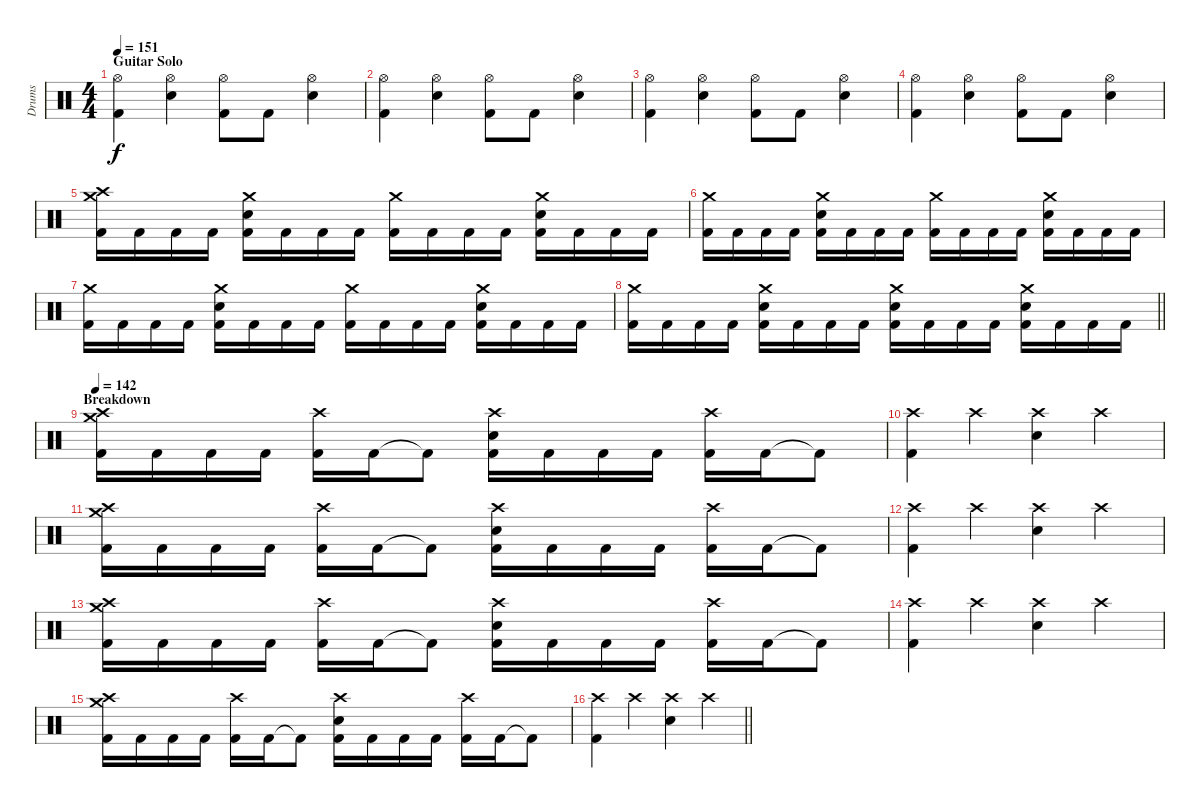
\track ("Drums" "Drums") {instrument percussion}
\staff {score}
\articulation defaults
\ts (4 4)
\section ("" "Guitar Solo")
\tempo 151
\clef neutral
\ks c
("Hi-Hat (open)" "Kick (hit) 2").4{dy f} ("Hi-Hat (open)" "Electric Snare (hit)").4 ("Hi-Hat (open)" "Kick (hit) 2").8 "Kick (hit) 2".8 ("Hi-Hat (open)" "Electric Snare (hit)").4 |
("Hi-Hat (open)" "Kick (hit) 2").4 ("Hi-Hat (open)" "Electric Snare (hit)").4 ("Hi-Hat (open)" "Kick (hit) 2").8 "Kick (hit) 2".8 ("Hi-Hat (open)" "Electric Snare (hit)").4 |
("Hi-Hat (open)" "Kick (hit) 2").4 ("Hi-Hat (open)" "Electric Snare (hit)").4 ("Hi-Hat (open)" "Kick (hit) 2").8 "Kick (hit) 2".8 ("Hi-Hat (open)" "Electric Snare (hit)").4 |
("Hi-Hat (open)" "Kick (hit) 2").4 ("Hi-Hat (open)" "Electric Snare (hit)").4 ("Hi-Hat (open)" "Kick (hit) 2").8 "Kick (hit) 2".8 ("Hi-Hat (open)" "Electric Snare (hit)").4 |
("Crash medium (hit)" "Crash high (hit)" "Kick (hit) 2").16 "Kick (hit) 2".16 "Kick (hit) 2".16 "Kick (hit) 2".16 ("Crash medium (hit)" "Electric Snare (hit)" "Kick (hit) 2").16 "Kick (hit) 2".16 "Kick (hit) 2".16 "Kick (hit) 2".16 ("Crash medium (hit)" "Kick (hit) 2").16 "Kick (hit) 2".16 "Kick (hit) 2".16 "Kick (hit) 2".16 ("Crash medium (hit)" "Electric Snare (hit)" "Kick (hit) 2").16 "Kick (hit) 2".16 "Kick (hit) 2".16 "Kick (hit) 2".16 |
("Crash medium (hit)" "Kick (hit) 2").16 "Kick (hit) 2".16 "Kick (hit) 2".16 "Kick (hit) 2".16 ("Crash medium (hit)" "Electric Snare (hit)" "Kick (hit) 2").16 "Kick (hit) 2".16 "Kick (hit) 2".16 "Kick (hit) 2".16 ("Crash medium (hit)" "Kick (hit) 2").16 "Kick (hit) 2".16 "Kick (hit) 2".16 "Kick (hit) 2".16 ("Crash medium (hit)" "Electric Snare (hit)" "Kick (hit) 2").16 "Kick (hit) 2".16 "Kick (hit) 2".16 "Kick (hit) 2".16 |
("Crash medium (hit)" "Kick (hit) 2").16 "Kick (hit) 2".16 "Kick (hit) 2".16 "Kick (hit) 2".16 ("Crash medium (hit)" "Electric Snare (hit)" "Kick (hit) 2").16 "Kick (hit) 2".16 "Kick (hit) 2".16 "Kick (hit) 2".16 ("Crash medium (hit)" "Kick (hit) 2").16 "Kick (hit) 2".16 "Kick (hit) 2".16 "Kick (hit) 2".16 ("Crash medium (hit)" "Electric Snare (hit)" "Kick (hit) 2").16 "Kick (hit) 2".16 "Kick (hit) 2".16 "Kick (hit) 2".16 |
\barLineRight lightlight
("Crash medium (hit)" "Kick (hit) 2").16 "Kick (hit) 2".16 "Kick (hit) 2".16 "Kick (hit) 2".16 ("Crash medium (hit)" "Electric Snare (hit)" "Kick (hit) 2").16 "Kick (hit) 2".16 "Kick (hit) 2".16 "Kick (hit) 2".16 ("Crash medium (hit)" "Electric Snare (hit)" "Kick (hit) 2").16 "Kick (hit) 2".16 "Kick (hit) 2".16 "Kick (hit) 2".16 ("Crash medium (hit)" "Electric Snare (hit)" "Kick (hit) 2").16 "Kick (hit) 2".16 "Kick (hit) 2".16 "Kick (hit) 2".16 |
\section ("" "Breakdown")
\tempo 142
("Crash medium (hit)" "Crash high (hit)" "Kick (hit) 2").16 "Kick (hit) 2".16 "Kick (hit) 2".16 "Kick (hit) 2".16 ("Crash high (hit)" "Kick (hit) 2").16 "Kick (hit) 2".16 "Kick (hit) 2"{t}.8 ("Crash high (hit)" "Electric Snare (hit)" "Kick (hit) 2").16 "Kick (hit) 2".16 "Kick (hit) 2".16 "Kick (hit) 2".16 ("Crash high (hit)" "Kick (hit) 2").16 "Kick (hit) 2".16 "Kick (hit) 2"{t}.8 |
("Crash high (hit)" "Kick (hit) 2").4 "Crash high (hit)".4 ("Crash high (hit)" "Electric Snare (hit)").4 "Crash high (hit)".4 |
("Crash medium (hit)" "Crash high (hit)" "Kick (hit) 2").16 "Kick (hit) 2".16 "Kick (hit) 2".16 "Kick (hit) 2".16 ("Crash high (hit)" "Kick (hit) 2").16 "Kick (hit) 2".16 "Kick (hit) 2"{t}.8 ("Crash high (hit)" "Electric Snare (hit)" "Kick (hit) 2").16 "Kick (hit) 2".16 "Kick (hit) 2".16 "Kick (hit) 2".16 ("Crash high (hit)" "Kick (hit) 2").16 "Kick (hit) 2".16 "Kick (hit) 2"{t}.8 |
("Crash high (hit)" "Kick (hit) 2").4 "Crash high (hit)".4 ("Crash high (hit)" "Electric Snare (hit)").4 "Crash high (hit)".4 |
("Crash medium (hit)" "Crash high (hit)" "Kick (hit) 2").16 "Kick (hit) 2".16 "Kick (hit) 2".16 "Kick (hit) 2".16 ("Crash high (hit)" "Kick (hit) 2").16 "Kick (hit) 2".16 "Kick (hit) 2"{t}.8 ("Crash high (hit)" "Electric Snare (hit)" "Kick (hit) 2").16 "Kick (hit) 2".16 "Kick (hit) 2".16 "Kick (hit) 2".16 ("Crash high (hit)" "Kick (hit) 2").16 "Kick (hit) 2".16 "Kick (hit) 2"{t}.8 |
("Crash high (hit)" "Kick (hit) 2").4 "Crash high (hit)".4 ("Crash high (hit)" "Electric Snare (hit)").4 "Crash high (hit)".4 |
("Crash medium (hit)" "Crash high (hit)" "Kick (hit) 2").16 "Kick (hit) 2".16 "Kick (hit) 2".16 "Kick (hit) 2".16 ("Crash high (hit)" "Kick (hit) 2").16 "Kick (hit) 2".16 "Kick (hit) 2"{t}.8 ("Crash high (hit)" "Electric Snare (hit)" "Kick (hit) 2").16 "Kick (hit) 2".16 "Kick (hit) 2".16 "Kick (hit) 2".16 ("Crash high (hit)" "Kick (hit) 2").16 "Kick (hit) 2".16 "Kick (hit) 2"{t}.8 |
\barLineRight lightlight
("Crash high (hit)" "Kick (hit) 2").4 "Crash high (hit)".4 ("Crash high (hit)" "Electric Snare (hit)").4 "Crash high (hit)".4
